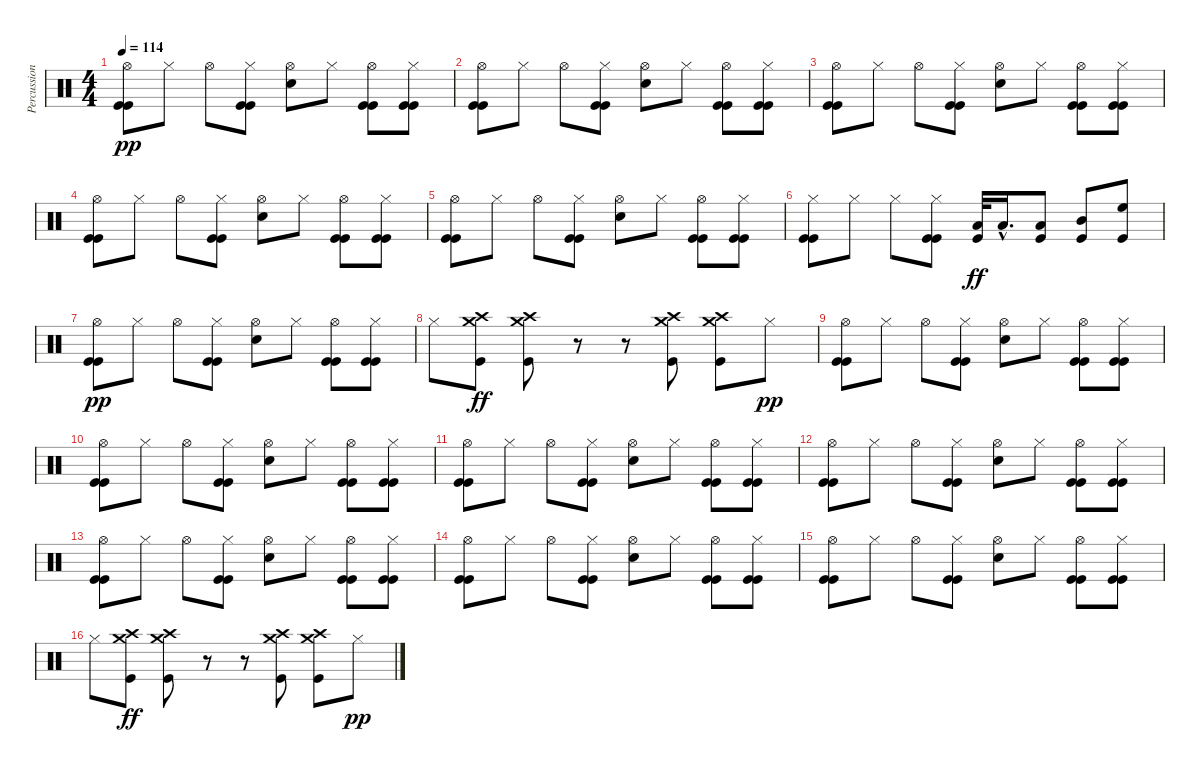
\track ("Percussion" "Percussion") {instrument percussion}
\staff {score}
\articulation defaults
\ts (4 4)
\tempo 114
\clef neutral
\ks c
("Kick (hit)" "Hi-Hat (open)" "Kick (hit)").8{dy pp} "Hi-Hat (closed)".8 "Hi-Hat (open)".8 ("Kick (hit)" "Hi-Hat (closed)" "Kick (hit)").8 ("Snare (hit) 2" "Hi-Hat (open)").8 "Hi-Hat (closed)".8 ("Kick (hit)" "Hi-Hat (open)" "Kick (hit)").8 ("Kick (hit)" "Hi-Hat (closed)" "Kick (hit)").8 |
("Kick (hit)" "Hi-Hat (open)" "Kick (hit)").8 "Hi-Hat (closed)".8 "Hi-Hat (open)".8 ("Kick (hit)" "Hi-Hat (closed)" "Kick (hit)").8 ("Snare (hit) 2" "Hi-Hat (open)").8 "Hi-Hat (closed)".8 ("Kick (hit)" "Hi-Hat (open)" "Kick (hit)").8 ("Kick (hit)" "Hi-Hat (closed)" "Kick (hit)").8 |
("Kick (hit)" "Hi-Hat (open)" "Kick (hit)").8 "Hi-Hat (closed)".8 "Hi-Hat (open)".8 ("Kick (hit)" "Hi-Hat (closed)" "Kick (hit)").8 ("Snare (hit) 2" "Hi-Hat (open)").8 "Hi-Hat (closed)".8 ("Kick (hit)" "Hi-Hat (open)" "Kick (hit)").8 ("Kick (hit)" "Hi-Hat (closed)" "Kick (hit)").8 |
("Kick (hit)" "Hi-Hat (open)" "Kick (hit)").8 "Hi-Hat (closed)".8 "Hi-Hat (open)".8 ("Kick (hit)" "Hi-Hat (closed)" "Kick (hit)").8 ("Snare (hit) 2" "Hi-Hat (open)").8 "Hi-Hat (closed)".8 ("Kick (hit)" "Hi-Hat (open)" "Kick (hit)").8 ("Kick (hit)" "Hi-Hat (closed)" "Kick (hit)").8 |
("Kick (hit)" "Hi-Hat (open)" "Kick (hit)").8 "Hi-Hat (closed)".8 "Hi-Hat (open)".8 ("Kick (hit)" "Hi-Hat (closed)" "Kick (hit)").8 ("Snare (hit) 2" "Hi-Hat (open)").8 "Hi-Hat (closed)".8 ("Kick (hit)" "Hi-Hat (open)" "Kick (hit)").8 ("Kick (hit)" "Hi-Hat (closed)" "Kick (hit)").8 |
("Kick (hit)" "Hi-Hat (closed)" "Kick (hit)").8 "Hi-Hat (closed)".8 "Hi-Hat (closed)".8 ("Kick (hit)" "Hi-Hat (closed)" "Kick (hit)").8 ("Kick (hit)" "Low Tom (hit)").32{dy ff} "Low Tom (hit)"{hac}.16{d} ("Kick (hit)" "Low Tom (hit)").8 ("Kick (hit)" "Mid Tom (hit)").8 ("Kick (hit)" "High Floor Tom (hit)").8 |
("Kick (hit)" "Hi-Hat (open)" "Kick (hit)").8{dy pp} "Hi-Hat (closed)".8 "Hi-Hat (open)".8 ("Kick (hit)" "Hi-Hat (closed)" "Kick (hit)").8 ("Snare (hit) 2" "Hi-Hat (open)").8 "Hi-Hat (closed)".8 ("Kick (hit)" "Hi-Hat (open)" "Kick (hit)").8 ("Kick (hit)" "Hi-Hat (closed)" "Kick (hit)").8 |
"Hi-Hat (closed)".8 ("Kick (hit)" "Crash high (hit)" "Crash medium (hit)").8{dy ff} ("Kick (hit)" "Crash high (hit)" "Crash medium (hit)").8 r.8 r.8 ("Kick (hit)" "Crash high (hit)" "Crash medium (hit)").8 ("Kick (hit)" "Crash high (hit)" "Crash medium (hit)").8 "Hi-Hat (closed)".8{dy pp} |
("Kick (hit)" "Hi-Hat (open)" "Kick (hit)").8 "Hi-Hat (closed)".8 "Hi-Hat (open)".8 ("Kick (hit)" "Hi-Hat (closed)" "Kick (hit)").8 ("Snare (hit) 2" "Hi-Hat (open)").8 "Hi-Hat (closed)".8 ("Kick (hit)" "Hi-Hat (open)" "Kick (hit)").8 ("Kick (hit)" "Hi-Hat (closed)" "Kick (hit)").8 |
("Kick (hit)" "Hi-Hat (open)" "Kick (hit)").8 "Hi-Hat (closed)".8 "Hi-Hat (open)".8 ("Kick (hit)" "Hi-Hat (closed)" "Kick (hit)").8 ("Snare (hit) 2" "Hi-Hat (open)").8 "Hi-Hat (closed)".8 ("Kick (hit)" "Hi-Hat (open)" "Kick (hit)").8 ("Kick (hit)" "Hi-Hat (closed)" "Kick (hit)").8 |
("Kick (hit)" "Hi-Hat (open)" "Kick (hit)").8 "Hi-Hat (closed)".8 "Hi-Hat (open)".8 ("Kick (hit)" "Hi-Hat (closed)" "Kick (hit)").8 ("Snare (hit) 2" "Hi-Hat (open)").8 "Hi-Hat (closed)".8 ("Kick (hit)" "Hi-Hat (open)" "Kick (hit)").8 ("Kick (hit)" "Hi-Hat (closed)" "Kick (hit)").8 |
("Kick (hit)" "Hi-Hat (open)" "Kick (hit)").8 "Hi-Hat (closed)".8 "Hi-Hat (open)".8 ("Kick (hit)" "Hi-Hat (closed)" "Kick (hit)").8 ("Snare (hit) 2" "Hi-Hat (open)").8 "Hi-Hat (closed)".8 ("Kick (hit)" "Hi-Hat (open)" "Kick (hit)").8 ("Kick (hit)" "Hi-Hat (closed)" "Kick (hit)").8 |
("Kick (hit)" "Hi-Hat (open)" "Kick (hit)").8 "Hi-Hat (closed)".8 "Hi-Hat (open)".8 ("Kick (hit)" "Hi-Hat (closed)" "Kick (hit)").8 ("Snare (hit) 2" "Hi-Hat (open)").8 "Hi-Hat (closed)".8 ("Kick (hit)" "Hi-Hat (open)" "Kick (hit)").8 ("Kick (hit)" "Hi-Hat (closed)" "Kick (hit)").8 |
("Kick (hit)" "Hi-Hat (open)" "Kick (hit)").8 "Hi-Hat (closed)".8 "Hi-Hat (open)".8 ("Kick (hit)" "Hi-Hat (closed)" "Kick (hit)").8 ("Snare (hit) 2" "Hi-Hat (open)").8 "Hi-Hat (closed)".8 ("Kick (hit)" "Hi-Hat (open)" "Kick (hit)").8 ("Kick (hit)" "Hi-Hat (closed)" "Kick (hit)").8 |
("Kick (hit)" "Hi-Hat (open)" "Kick (hit)").8 "Hi-Hat (closed)".8 "Hi-Hat (open)".8 ("Kick (hit)" "Hi-Hat (closed)" "Kick (hit)").8 ("Snare (hit) 2" "Hi-Hat (open)").8 "Hi-Hat (closed)".8 ("Kick (hit)" "Hi-Hat (open)" "Kick (hit)").8 ("Kick (hit)" "Hi-Hat (closed)" "Kick (hit)").8 |
"Hi-Hat (closed)".8 ("Kick (hit)" "Crash high (hit)" "Crash medium (hit)").8{dy ff} ("Kick (hit)" "Crash high (hit)" "Crash medium (hit)").8 r.8 r.8 ("Kick (hit)" "Crash high (hit)" "Crash medium (hit)").8 ("Kick (hit)" "Crash high (hit)" "Crash medium (hit)").8 "Hi-Hat (closed)".8{dy pp}
